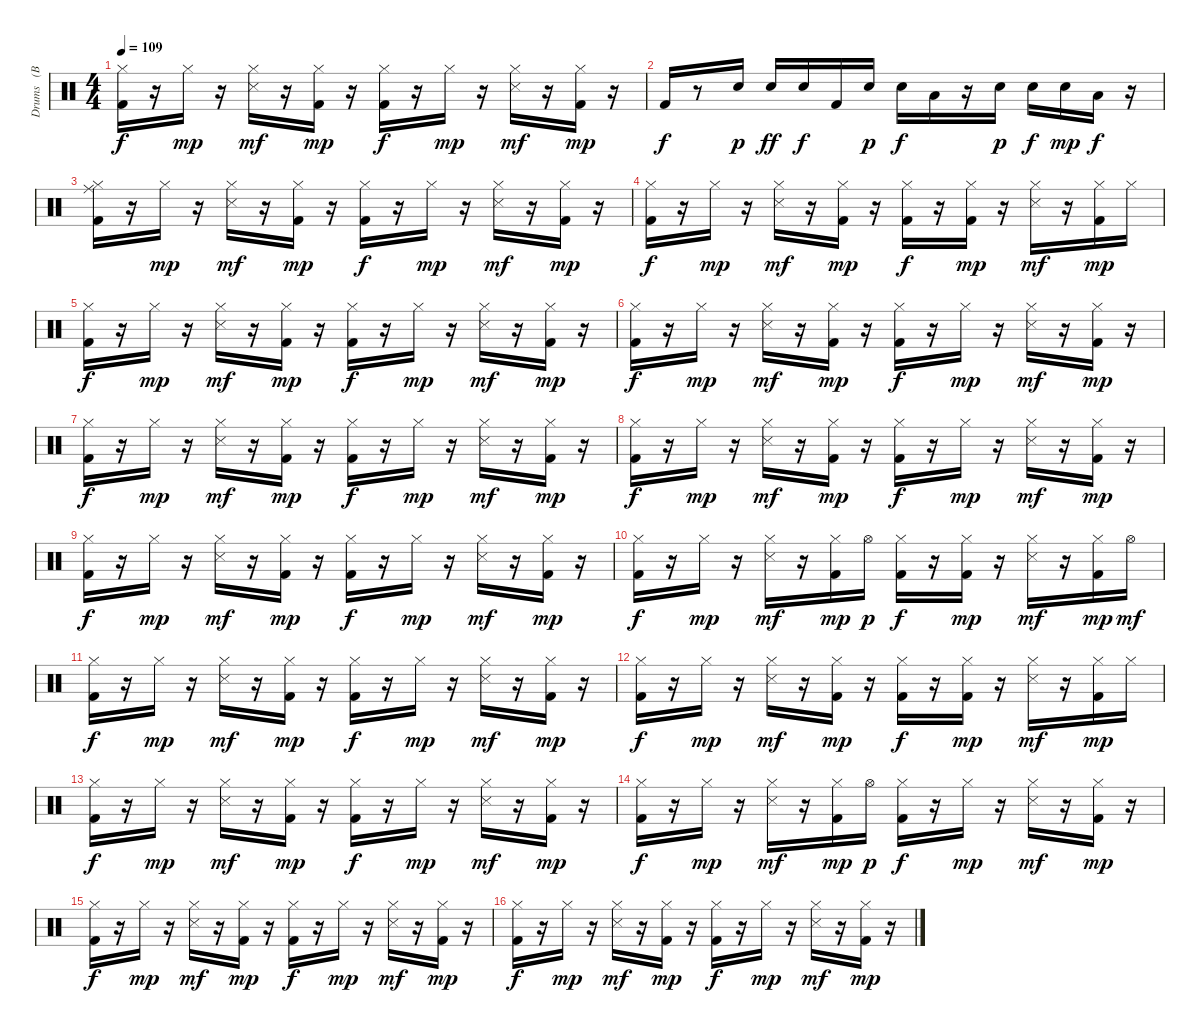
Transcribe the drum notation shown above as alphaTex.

\track ("Drums   (BB)" "Drums   (B") {instrument percussion}
\staff {score}
\articulation defaults
\ts (4 4)
\tempo 109
\clef neutral
\ks c
("Kick (hit) 2" "Hi-Hat (closed)").16{dy f} r.16 "Hi-Hat (closed)".16{dy mp} r.16 ("Hi-Hat (closed)" "Snare (side stick) 3").16{dy mf} r.16 ("Kick (hit) 2" "Hi-Hat (closed)").16{dy mp} r.16 ("Kick (hit) 2" "Hi-Hat (closed)").16{dy f} r.16 "Hi-Hat (closed)".16{dy mp} r.16 ("Hi-Hat (closed)" "Snare (side stick) 3").16{dy mf} r.16 ("Kick (hit) 2" "Hi-Hat (closed)").16{dy mp} r.16 |
"Kick (hit) 2".16{dy f} r.8 "Snare (hit) 2".16{dy p} "Snare (hit) 2".16{dy ff} "Snare (hit) 2".16{dy f} "Kick (hit) 2".16 "Snare (hit) 2".16{dy p} "Snare (hit) 2".16{dy f} "Low Tom (hit)".16 r.16 "Snare (hit) 2".16{dy p} "Snare (hit) 2".16{dy f} "Snare (hit) 2".16{dy mp} "Low Floor Tom (hit)".16{dy f} r.16 |
("Kick (hit) 2" "Hi-Hat (closed)" "Ride (middle)").16 r.16 "Hi-Hat (closed)".16{dy mp} r.16 ("Hi-Hat (closed)" "Snare (side stick) 3").16{dy mf} r.16 ("Kick (hit) 2" "Hi-Hat (closed)").16{dy mp} r.16 ("Kick (hit) 2" "Hi-Hat (closed)").16{dy f} r.16 "Hi-Hat (closed)".16{dy mp} r.16 ("Hi-Hat (closed)" "Snare (side stick) 3").16{dy mf} r.16 ("Kick (hit) 2" "Hi-Hat (closed)").16{dy mp} r.16 |
("Kick (hit) 2" "Hi-Hat (closed)").16{dy f} r.16 "Hi-Hat (closed)".16{dy mp} r.16 ("Hi-Hat (closed)" "Snare (side stick) 3").16{dy mf} r.16 ("Kick (hit) 2" "Hi-Hat (closed)").16{dy mp} r.16 ("Kick (hit) 2" "Hi-Hat (closed)").16{dy f} r.16 ("Kick (hit) 2" "Hi-Hat (closed)").16{dy mp} r.16 ("Hi-Hat (closed)" "Snare (side stick) 3").16{dy mf} r.16 ("Kick (hit) 2" "Hi-Hat (closed)").16{dy mp} "Hi-Hat (closed)".16 |
("Kick (hit) 2" "Hi-Hat (closed)").16{dy f} r.16 "Hi-Hat (closed)".16{dy mp} r.16 ("Hi-Hat (closed)" "Snare (side stick) 3").16{dy mf} r.16 ("Kick (hit) 2" "Hi-Hat (closed)").16{dy mp} r.16 ("Kick (hit) 2" "Hi-Hat (closed)").16{dy f} r.16 "Hi-Hat (closed)".16{dy mp} r.16 ("Hi-Hat (closed)" "Snare (side stick) 3").16{dy mf} r.16 ("Kick (hit) 2" "Hi-Hat (closed)").16{dy mp} r.16 |
("Kick (hit) 2" "Hi-Hat (closed)").16{dy f} r.16 "Hi-Hat (closed)".16{dy mp} r.16 ("Hi-Hat (closed)" "Snare (side stick) 3").16{dy mf} r.16 ("Kick (hit) 2" "Hi-Hat (closed)").16{dy mp} r.16 ("Kick (hit) 2" "Hi-Hat (closed)").16{dy f} r.16 "Hi-Hat (closed)".16{dy mp} r.16 ("Hi-Hat (closed)" "Snare (side stick) 3").16{dy mf} r.16 ("Kick (hit) 2" "Hi-Hat (closed)").16{dy mp} r.16 |
("Kick (hit) 2" "Hi-Hat (closed)").16{dy f} r.16 "Hi-Hat (closed)".16{dy mp} r.16 ("Hi-Hat (closed)" "Snare (side stick) 3").16{dy mf} r.16 ("Kick (hit) 2" "Hi-Hat (closed)").16{dy mp} r.16 ("Kick (hit) 2" "Hi-Hat (closed)").16{dy f} r.16 "Hi-Hat (closed)".16{dy mp} r.16 ("Hi-Hat (closed)" "Snare (side stick) 3").16{dy mf} r.16 ("Kick (hit) 2" "Hi-Hat (closed)").16{dy mp} r.16 |
("Kick (hit) 2" "Hi-Hat (closed)").16{dy f} r.16 "Hi-Hat (closed)".16{dy mp} r.16 ("Hi-Hat (closed)" "Snare (side stick) 3").16{dy mf} r.16 ("Kick (hit) 2" "Hi-Hat (closed)").16{dy mp} r.16 ("Kick (hit) 2" "Hi-Hat (closed)").16{dy f} r.16 "Hi-Hat (closed)".16{dy mp} r.16 ("Hi-Hat (closed)" "Snare (side stick) 3").16{dy mf} r.16 ("Kick (hit) 2" "Hi-Hat (closed)").16{dy mp} r.16 |
("Kick (hit) 2" "Hi-Hat (closed)").16{dy f} r.16 "Hi-Hat (closed)".16{dy mp} r.16 ("Hi-Hat (closed)" "Snare (side stick) 3").16{dy mf} r.16 ("Kick (hit) 2" "Hi-Hat (closed)").16{dy mp} r.16 ("Kick (hit) 2" "Hi-Hat (closed)").16{dy f} r.16 "Hi-Hat (closed)".16{dy mp} r.16 ("Hi-Hat (closed)" "Snare (side stick) 3").16{dy mf} r.16 ("Kick (hit) 2" "Hi-Hat (closed)").16{dy mp} r.16 |
("Kick (hit) 2" "Hi-Hat (closed)").16{dy f} r.16 "Hi-Hat (closed)".16{dy mp} r.16 ("Hi-Hat (closed)" "Snare (side stick) 3").16{dy mf} r.16 ("Kick (hit) 2" "Hi-Hat (closed)").16{dy mp} "Hi-Hat (open)".16{dy p} ("Kick (hit) 2" "Hi-Hat (closed)").16{dy f} r.16 ("Kick (hit) 2" "Hi-Hat (closed)").16{dy mp} r.16 ("Hi-Hat (closed)" "Snare (side stick) 3").16{dy mf} r.16 ("Kick (hit) 2" "Hi-Hat (closed)").16{dy mp} "Hi-Hat (open)".16{dy mf} |
("Kick (hit) 2" "Hi-Hat (closed)").16{dy f} r.16 "Hi-Hat (closed)".16{dy mp} r.16 ("Hi-Hat (closed)" "Snare (side stick) 3").16{dy mf} r.16 ("Kick (hit) 2" "Hi-Hat (closed)").16{dy mp} r.16 ("Kick (hit) 2" "Hi-Hat (closed)").16{dy f} r.16 "Hi-Hat (closed)".16{dy mp} r.16 ("Hi-Hat (closed)" "Snare (side stick) 3").16{dy mf} r.16 ("Kick (hit) 2" "Hi-Hat (closed)").16{dy mp} r.16 |
("Kick (hit) 2" "Hi-Hat (closed)").16{dy f} r.16 "Hi-Hat (closed)".16{dy mp} r.16 ("Hi-Hat (closed)" "Snare (side stick) 3").16{dy mf} r.16 ("Kick (hit) 2" "Hi-Hat (closed)").16{dy mp} r.16 ("Kick (hit) 2" "Hi-Hat (closed)").16{dy f} r.16 ("Kick (hit) 2" "Hi-Hat (closed)").16{dy mp} r.16 ("Hi-Hat (closed)" "Snare (side stick) 3").16{dy mf} r.16 ("Kick (hit) 2" "Hi-Hat (closed)").16{dy mp} "Hi-Hat (closed)".16 |
("Kick (hit) 2" "Hi-Hat (closed)").16{dy f} r.16 "Hi-Hat (closed)".16{dy mp} r.16 ("Hi-Hat (closed)" "Snare (side stick) 3").16{dy mf} r.16 ("Kick (hit) 2" "Hi-Hat (closed)").16{dy mp} r.16 ("Kick (hit) 2" "Hi-Hat (closed)").16{dy f} r.16 "Hi-Hat (closed)".16{dy mp} r.16 ("Hi-Hat (closed)" "Snare (side stick) 3").16{dy mf} r.16 ("Kick (hit) 2" "Hi-Hat (closed)").16{dy mp} r.16 |
("Kick (hit) 2" "Hi-Hat (closed)").16{dy f} r.16 "Hi-Hat (closed)".16{dy mp} r.16 ("Hi-Hat (closed)" "Snare (side stick) 3").16{dy mf} r.16 ("Kick (hit) 2" "Hi-Hat (closed)").16{dy mp} "Hi-Hat (open)".16{dy p} ("Kick (hit) 2" "Hi-Hat (closed)").16{dy f} r.16 "Hi-Hat (closed)".16{dy mp} r.16 ("Hi-Hat (closed)" "Snare (side stick) 3").16{dy mf} r.16 ("Kick (hit) 2" "Hi-Hat (closed)").16{dy mp} r.16 |
("Kick (hit) 2" "Hi-Hat (closed)").16{dy f} r.16 "Hi-Hat (closed)".16{dy mp} r.16 ("Hi-Hat (closed)" "Snare (side stick) 3").16{dy mf} r.16 ("Kick (hit) 2" "Hi-Hat (closed)").16{dy mp} r.16 ("Kick (hit) 2" "Hi-Hat (closed)").16{dy f} r.16 "Hi-Hat (closed)".16{dy mp} r.16 ("Hi-Hat (closed)" "Snare (side stick) 3").16{dy mf} r.16 ("Kick (hit) 2" "Hi-Hat (closed)").16{dy mp} r.16 |
("Kick (hit) 2" "Hi-Hat (closed)").16{dy f} r.16 "Hi-Hat (closed)".16{dy mp} r.16 ("Hi-Hat (closed)" "Snare (side stick) 3").16{dy mf} r.16 ("Kick (hit) 2" "Hi-Hat (closed)").16{dy mp} r.16 ("Kick (hit) 2" "Hi-Hat (closed)").16{dy f} r.16 "Hi-Hat (closed)".16{dy mp} r.16 ("Hi-Hat (closed)" "Snare (side stick) 3").16{dy mf} r.16 ("Kick (hit) 2" "Hi-Hat (closed)").16{dy mp} r.16
